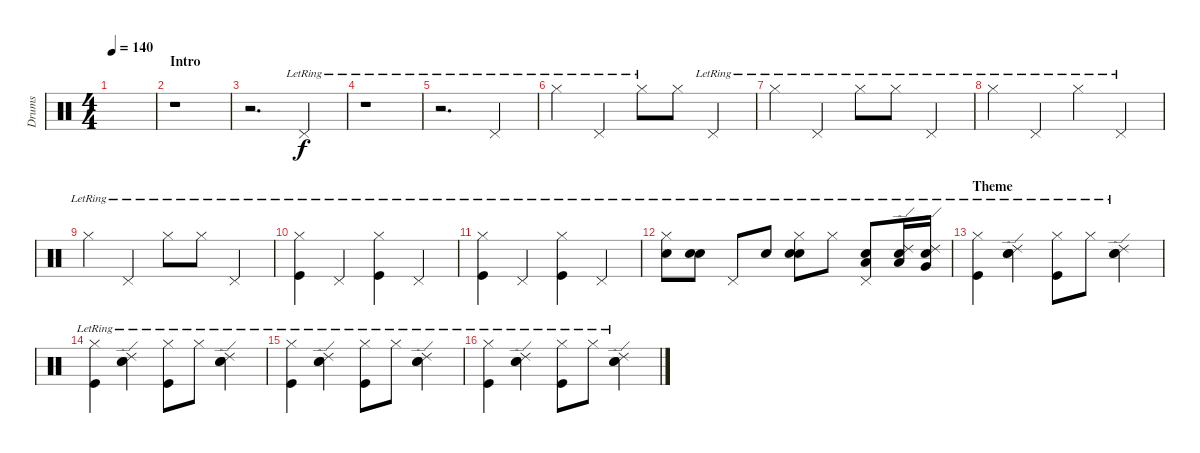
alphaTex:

\track ("Drums" "Drums") {instrument percussion}
\staff {score}
\articulation defaults
\ts (4 4)
\tempo 140
\clef neutral
\ks c
|
\section ("" "Intro")
r.1 |
r.2{d} "Pedal Hi-Hat (hit)"{lr}.4 |
r.1 |
r.2{d} "Pedal Hi-Hat (hit)"{lr}.4 |
"Hi-Hat (closed)"{lr}.4 "Pedal Hi-Hat (hit)"{lr}.4 "Hi-Hat (closed)"{lr}.8 "Hi-Hat (closed)".8 "Pedal Hi-Hat (hit)"{lr}.4 |
"Hi-Hat (closed)"{lr}.4 "Pedal Hi-Hat (hit)"{lr}.4 "Hi-Hat (closed)"{lr}.8 "Hi-Hat (closed)"{lr}.8 "Pedal Hi-Hat (hit)"{lr}.4 |
"Hi-Hat (closed)"{lr}.4 "Pedal Hi-Hat (hit)"{lr}.4 "Hi-Hat (closed)"{lr}.4 "Pedal Hi-Hat (hit)"{lr}.4 |
"Hi-Hat (closed)"{lr}.4 "Pedal Hi-Hat (hit)"{lr}.4 "Hi-Hat (closed)"{lr}.8 "Hi-Hat (closed)"{lr}.8 "Pedal Hi-Hat (hit)"{lr}.4 |
("Hi-Hat (closed)"{lr} "Kick (hit)"{lr}).4 "Pedal Hi-Hat (hit)"{lr}.4 ("Hi-Hat (closed)"{lr} "Kick (hit)"{lr}).4 "Pedal Hi-Hat (hit)"{lr}.4 |
("Hi-Hat (closed)"{lr} "Kick (hit)"{lr}).4 "Pedal Hi-Hat (hit)"{lr}.4 ("Hi-Hat (closed)"{lr} "Kick (hit)"{lr}).4 "Pedal Hi-Hat (hit)"{lr}.4 |
("Hi-Hat (closed)"{lr} "Snare (hit) 2"{lr}).8 ("Snare (hit) 2"{lr} "Electric Snare (hit)"{lr}).8 "Pedal Hi-Hat (hit)"{lr}.8 "Snare (hit) 2"{lr}.8 ("Hi-Hat (closed)"{lr} "Snare (hit) 2"{lr} "Electric Snare (hit)"{lr}).8 "Hi-Hat (closed)"{lr}.8 ("Pedal Hi-Hat (hit)"{lr} "Snare (hit) 2"{lr} "Low Tom (hit)"{lr}).8 ("Ride (edge) 2"{lr} "Snare (hit) 2"{lr} "Low Tom (hit)"{lr}).16 ("Ride (edge) 2"{lr} "Snare (hit) 2"{lr} "Very Low Tom (hit)"{lr}).16 |
\section ("" "Theme")
("Hi-Hat (closed)"{lr} "Kick (hit)"{lr}).4 ("Electric Snare (hit)"{lr} "Ride (edge) 2"{lr} "Snare (hit) 2"{lr}).4 ("Hi-Hat (closed)"{lr} "Kick (hit)"{lr}).8 "Hi-Hat (closed)"{lr}.8 ("Electric Snare (hit)"{lr} "Ride (edge) 2"{lr} "Snare (hit) 2"{lr}).4 |
("Hi-Hat (closed)"{lr} "Kick (hit)"{lr}).4 ("Electric Snare (hit)"{lr} "Ride (edge) 2"{lr} "Snare (hit) 2"{lr}).4 ("Hi-Hat (closed)"{lr} "Kick (hit)"{lr}).8 "Hi-Hat (closed)"{lr}.8 ("Electric Snare (hit)"{lr} "Ride (edge) 2"{lr} "Snare (hit) 2"{lr}).4 |
("Hi-Hat (closed)"{lr} "Kick (hit)"{lr}).4 ("Electric Snare (hit)"{lr} "Ride (edge) 2"{lr} "Snare (hit) 2"{lr}).4 ("Hi-Hat (closed)"{lr} "Kick (hit)"{lr}).8 "Hi-Hat (closed)"{lr}.8 ("Electric Snare (hit)"{lr} "Ride (edge) 2"{lr} "Snare (hit) 2"{lr}).4 |
("Hi-Hat (closed)"{lr} "Kick (hit)"{lr}).4 ("Electric Snare (hit)"{lr} "Ride (edge) 2"{lr} "Snare (hit) 2"{lr}).4 ("Hi-Hat (closed)"{lr} "Kick (hit)"{lr}).8 "Hi-Hat (closed)"{lr}.8 ("Electric Snare (hit)"{lr} "Ride (edge) 2"{lr} "Snare (hit) 2"{lr}).4
